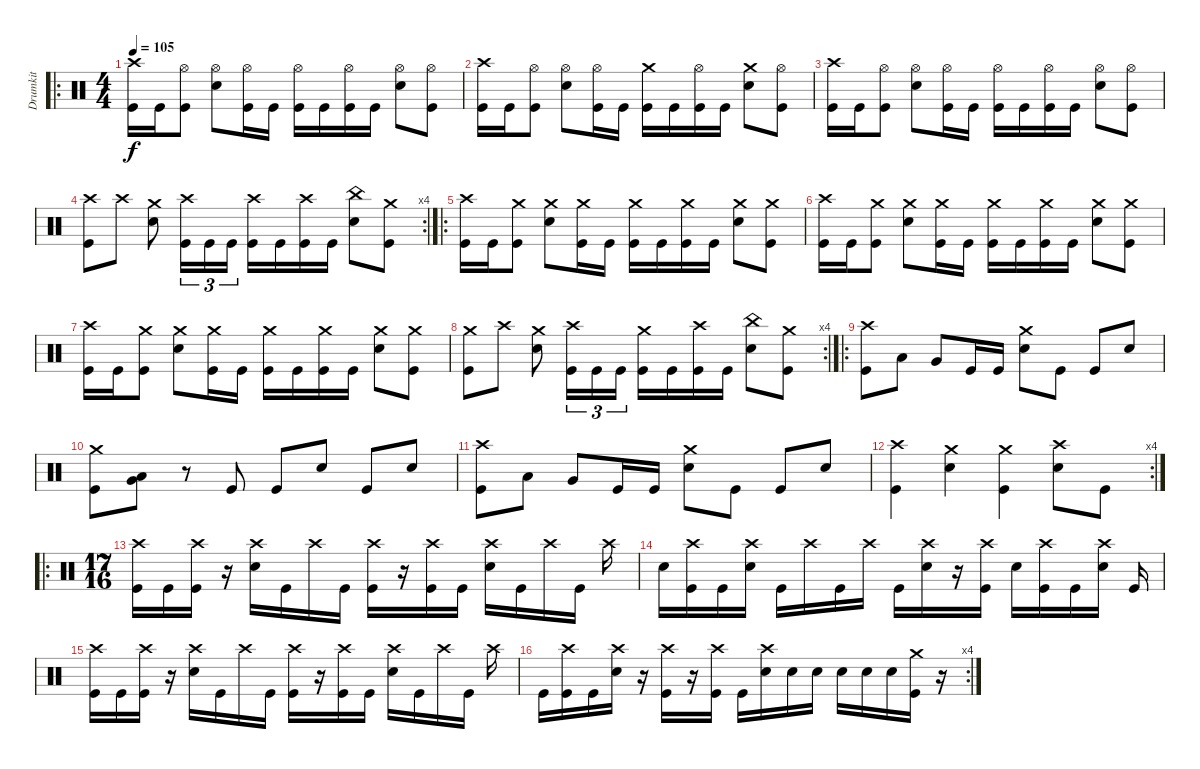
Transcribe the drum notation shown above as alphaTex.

\track ("Drumkit" "Drumkit") {instrument percussion}
\staff {score}
\articulation defaults
\ro
\ts (4 4)
\tempo 105
\clef neutral
\ks c
("Crash high (hit)" "Kick (hit)").16{dy f} "Kick (hit)".16 ("Hi-Hat (open)" "Kick (hit)").8 ("Hi-Hat (open)" "Snare (hit) 2").8 ("Hi-Hat (open)" "Kick (hit)").16 "Kick (hit)".16 ("Hi-Hat (open)" "Kick (hit)").16 "Kick (hit)".16 ("Hi-Hat (open)" "Kick (hit)").16 "Kick (hit)".16 ("Hi-Hat (open)" "Snare (hit) 2").8 ("Hi-Hat (open)" "Kick (hit)").8 |
("Crash high (hit)" "Kick (hit)").16 "Kick (hit)".16 ("Hi-Hat (open)" "Kick (hit)").8 ("Hi-Hat (open)" "Snare (hit) 2").8 ("Hi-Hat (open)" "Kick (hit)").16 "Kick (hit)".16 ("Crash medium (hit)" "Kick (hit)").16 "Kick (hit)".16 ("Hi-Hat (open)" "Kick (hit)").16 "Kick (hit)".16 ("Crash medium (hit)" "Snare (hit) 2").8 ("Hi-Hat (open)" "Kick (hit)").8 |
("Crash high (hit)" "Kick (hit)").16 "Kick (hit)".16 ("Hi-Hat (open)" "Kick (hit)").8 ("Hi-Hat (open)" "Snare (hit) 2").8 ("Hi-Hat (open)" "Kick (hit)").16 "Kick (hit)".16 ("Hi-Hat (open)" "Kick (hit)").16 "Kick (hit)".16 ("Hi-Hat (open)" "Kick (hit)").16 "Kick (hit)".16 ("Hi-Hat (open)" "Snare (hit) 2").8 ("Hi-Hat (open)" "Kick (hit)").8 |
\rc 4
("Crash high (hit)" "Kick (hit)").8 "Crash high (hit)".8 ("Crash medium (hit)" "Snare (hit) 2").8 ("Crash high (hit)" "Kick (hit)").16{tu (3 2)} "Kick (hit)".16{tu (3 2)} "Kick (hit)".16{tu (3 2)} ("Crash high (hit)" "Kick (hit)").16 "Kick (hit)".16 ("Crash high (hit)" "Kick (hit)").16 "Kick (hit)".16 ("China (hit)" "Snare (hit) 2").8 ("Crash medium (hit)" "Kick (hit)").8 |
\ro
("Crash high (hit)" "Kick (hit)").16 "Kick (hit)".16 ("Crash medium (hit)" "Kick (hit)").8 ("Crash medium (hit)" "Snare (hit) 2").8 ("Crash medium (hit)" "Kick (hit)").16 "Kick (hit)".16 ("Crash medium (hit)" "Kick (hit)").16 "Kick (hit)".16 ("Crash medium (hit)" "Kick (hit)").16 "Kick (hit)".16 ("Crash medium (hit)" "Snare (hit) 2").8 ("Crash medium (hit)" "Kick (hit)").8 |
("Crash high (hit)" "Kick (hit)").16 "Kick (hit)".16 ("Crash medium (hit)" "Kick (hit)").8 ("Crash medium (hit)" "Snare (hit) 2").8 ("Crash medium (hit)" "Kick (hit)").16 "Kick (hit)".16 ("Crash medium (hit)" "Kick (hit)").16 "Kick (hit)".16 ("Crash medium (hit)" "Kick (hit)").16 "Kick (hit)".16 ("Crash medium (hit)" "Snare (hit) 2").8 ("Crash medium (hit)" "Kick (hit)").8 |
("Crash high (hit)" "Kick (hit)").16 "Kick (hit)".16 ("Crash medium (hit)" "Kick (hit)").8 ("Crash medium (hit)" "Snare (hit) 2").8 ("Crash medium (hit)" "Kick (hit)").16 "Kick (hit)".16 ("Crash medium (hit)" "Kick (hit)").16 "Kick (hit)".16 ("Crash medium (hit)" "Kick (hit)").16 "Kick (hit)".16 ("Crash medium (hit)" "Snare (hit) 2").8 ("Crash medium (hit)" "Kick (hit)").8 |
\rc 4
("Crash medium (hit)" "Kick (hit)").8 "Crash high (hit)".8 ("Crash medium (hit)" "Snare (hit) 2").8 ("Crash high (hit)" "Kick (hit)").16{tu (3 2)} "Kick (hit)".16{tu (3 2)} "Kick (hit)".16{tu (3 2)} ("Crash medium (hit)" "Kick (hit)").16 "Kick (hit)".16 ("Crash high (hit)" "Kick (hit)").16 "Kick (hit)".16 ("China (hit)" "Snare (hit) 2").8 ("Crash medium (hit)" "Kick (hit)").8 |
\ro
("Crash high (hit)" "Kick (hit)").8 "Low Tom (hit)".8 "Very Low Tom (hit)".8 "Kick (hit)".16 "Kick (hit)".16 ("Crash medium (hit)" "Snare (hit) 2").8 "Kick (hit)".8 "Kick (hit)".8 "Snare (hit) 2".8 |
("Crash medium (hit)" "Kick (hit)").8 ("Low Tom (hit)" "Very Low Tom (hit)").8 r.8 "Kick (hit)".8 "Kick (hit)".8 "Snare (hit) 2".8 "Kick (hit)".8 "Snare (hit) 2".8 |
("Crash high (hit)" "Kick (hit)").8 "Low Tom (hit)".8 "Very Low Tom (hit)".8 "Kick (hit)".16 "Kick (hit)".16 ("Crash medium (hit)" "Snare (hit) 2").8 "Kick (hit)".8 "Kick (hit)".8 "Snare (hit) 2".8 |
\rc 4
("Crash high (hit)" "Kick (hit)").4 ("Crash medium (hit)" "Snare (hit) 2").4 ("Crash medium (hit)" "Kick (hit)").4 ("Crash high (hit)" "Snare (hit) 2").8 "Kick (hit)".8 |
\ro
\ts (17 16)
("Crash high (hit)" "Kick (hit)").16 "Kick (hit)".16 ("Crash high (hit)" "Kick (hit)").16 r.16 ("Crash high (hit)" "Snare (hit) 2").16 "Kick (hit)".16 "Crash high (hit)".16 "Kick (hit)".16 ("Crash high (hit)" "Kick (hit)").16 r.16 ("Crash high (hit)" "Kick (hit)").16 "Kick (hit)".16 ("Crash high (hit)" "Snare (hit) 2").16 "Kick (hit)".16 "Crash high (hit)".16 "Kick (hit)".16 "Crash high (hit)".16 |
"Snare (hit) 2".16 ("Crash high (hit)" "Kick (hit)").16 "Kick (hit)".16 ("Crash high (hit)" "Snare (hit) 2").16 "Kick (hit)".16 "Crash high (hit)".16 "Kick (hit)".16 "Crash high (hit)".16 "Kick (hit)".16 ("Crash high (hit)" "Snare (hit) 2").16 r.16 ("Crash high (hit)" "Kick (hit)").16 "Snare (hit) 2".16 ("Crash high (hit)" "Kick (hit)").16 "Kick (hit)".16 ("Crash high (hit)" "Snare (hit) 2").16 "Kick (hit)".16 |
("Crash high (hit)" "Kick (hit)").16 "Kick (hit)".16 ("Crash high (hit)" "Kick (hit)").16 r.16 ("Crash high (hit)" "Snare (hit) 2").16 "Kick (hit)".16 "Crash high (hit)".16 "Kick (hit)".16 ("Crash high (hit)" "Kick (hit)").16 r.16 ("Crash high (hit)" "Kick (hit)").16 "Kick (hit)".16 ("Crash high (hit)" "Snare (hit) 2").16 "Kick (hit)".16 "Crash high (hit)".16 "Kick (hit)".16 "Crash high (hit)".16 |
\rc 4 "Kick (hit)".16
("Crash high (hit)" "Kick (hit)").16 "Kick (hit)".16 ("Crash high (hit)" "Snare (hit) 2").16 r.16 ("Crash high (hit)" "Kick (hit)").16 r.16 ("Crash high (hit)" "Kick (hit)").16 "Kick (hit)".16 ("Crash high (hit)" "Snare (hit) 2").16 "Snare (hit) 2".16 "Snare (hit) 2".16 "Snare (hit) 2".16 "Snare (hit) 2".16 "Snare (hit) 2".16 ("Crash medium (hit)" "Kick (hit)").16 r.16
